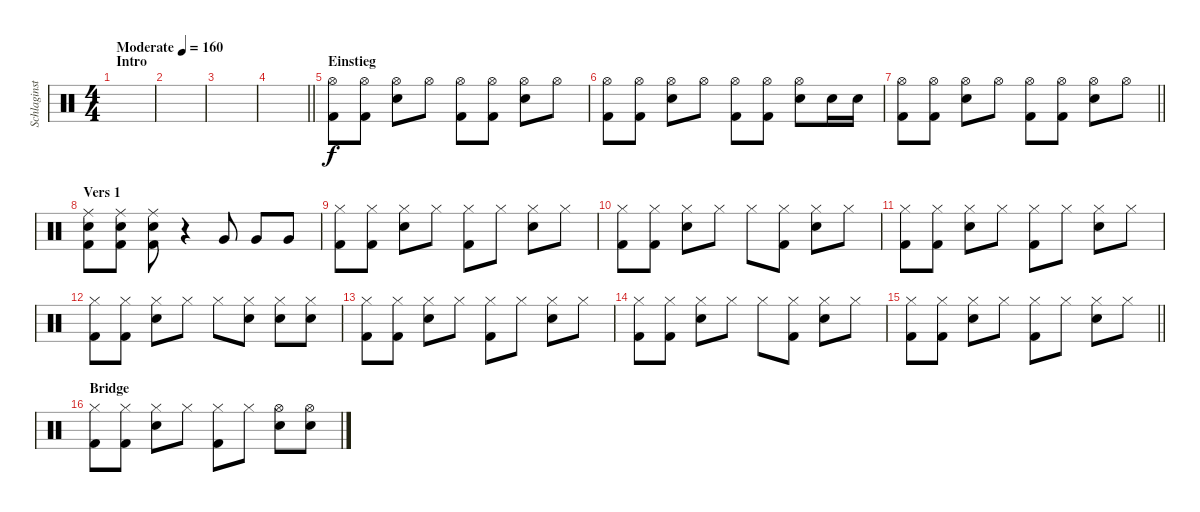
\track ("Schlaginstrumente - Auswahl" "Schlaginst") {instrument percussion}
\staff {score}
\articulation defaults
\ts (4 4)
\section ("" "Intro")
\tempo (160 "Moderate")
\clef neutral
\ks c
|
|
|
\barLineRight lightlight
|
\section ("" "Einstieg")
("Hi-Hat (open)" "Kick (hit) 2").8 ("Hi-Hat (open)" "Kick (hit) 2").8 ("Hi-Hat (open)" "Electric Snare (hit)").8 "Hi-Hat (open)".8 ("Hi-Hat (open)" "Kick (hit) 2").8 ("Hi-Hat (open)" "Kick (hit) 2").8 ("Hi-Hat (open)" "Electric Snare (hit)").8 "Hi-Hat (open)".8 |
("Hi-Hat (open)" "Kick (hit) 2").8 ("Hi-Hat (open)" "Kick (hit) 2").8 ("Hi-Hat (open)" "Electric Snare (hit)").8 "Hi-Hat (open)".8 ("Hi-Hat (open)" "Kick (hit) 2").8 ("Hi-Hat (open)" "Kick (hit) 2").8 ("Hi-Hat (open)" "Electric Snare (hit)").8 "Electric Snare (hit)".16 "Electric Snare (hit)".16 |
\barLineRight lightlight
("Hi-Hat (open)" "Kick (hit) 2").8 ("Hi-Hat (open)" "Kick (hit) 2").8 ("Hi-Hat (open)" "Electric Snare (hit)").8 "Hi-Hat (open)".8 ("Hi-Hat (open)" "Kick (hit) 2").8 ("Hi-Hat (open)" "Kick (hit) 2").8 ("Hi-Hat (open)" "Electric Snare (hit)").8 "Hi-Hat (open)".8 |
\section ("" "Vers 1")
("Ride (middle)" "Electric Snare (hit)" "Kick (hit) 2").8 ("Ride (middle)" "Electric Snare (hit)" "Kick (hit) 2").8 ("Ride (middle)" "Electric Snare (hit)" "Kick (hit) 2").8 r.4 "Very Low Tom (hit)".8 "Very Low Tom (hit)".8 "Very Low Tom (hit)".8 |
("Hi-Hat (closed)" "Kick (hit) 2").8 ("Hi-Hat (closed)" "Kick (hit) 2").8 ("Hi-Hat (closed)" "Electric Snare (hit)").8 "Hi-Hat (closed)".8 ("Hi-Hat (closed)" "Kick (hit) 2").8 "Hi-Hat (closed)".8 ("Hi-Hat (closed)" "Electric Snare (hit)").8 "Hi-Hat (closed)".8 |
("Hi-Hat (closed)" "Kick (hit) 2").8 ("Hi-Hat (closed)" "Kick (hit) 2").8 ("Hi-Hat (closed)" "Electric Snare (hit)").8 "Hi-Hat (closed)".8 "Hi-Hat (closed)".8 ("Hi-Hat (closed)" "Kick (hit) 2").8 ("Hi-Hat (closed)" "Electric Snare (hit)").8 "Hi-Hat (closed)".8 |
("Hi-Hat (closed)" "Kick (hit) 2").8 ("Hi-Hat (closed)" "Kick (hit) 2").8 ("Hi-Hat (closed)" "Electric Snare (hit)").8 "Hi-Hat (closed)".8 ("Hi-Hat (closed)" "Kick (hit) 2").8 "Hi-Hat (closed)".8 ("Hi-Hat (closed)" "Electric Snare (hit)").8 "Hi-Hat (closed)".8 |
("Hi-Hat (closed)" "Kick (hit) 2").8 ("Hi-Hat (closed)" "Kick (hit) 2").8 ("Hi-Hat (closed)" "Electric Snare (hit)").8 "Hi-Hat (closed)".8 "Hi-Hat (closed)".8 ("Hi-Hat (closed)" "Electric Snare (hit)").8 ("Hi-Hat (closed)" "Electric Snare (hit)").8 ("Hi-Hat (closed)" "Electric Snare (hit)").8 |
("Hi-Hat (closed)" "Kick (hit) 2").8 ("Hi-Hat (closed)" "Kick (hit) 2").8 ("Hi-Hat (closed)" "Electric Snare (hit)").8 "Hi-Hat (closed)".8 ("Hi-Hat (closed)" "Kick (hit) 2").8 "Hi-Hat (closed)".8 ("Hi-Hat (closed)" "Electric Snare (hit)").8 "Hi-Hat (closed)".8 |
("Hi-Hat (closed)" "Kick (hit) 2").8 ("Hi-Hat (closed)" "Kick (hit) 2").8 ("Hi-Hat (closed)" "Electric Snare (hit)").8 "Hi-Hat (closed)".8 "Hi-Hat (closed)".8 ("Hi-Hat (closed)" "Kick (hit) 2").8 ("Hi-Hat (closed)" "Electric Snare (hit)").8 "Hi-Hat (closed)".8 |
\barLineRight lightlight
("Hi-Hat (closed)" "Kick (hit) 2").8 ("Hi-Hat (closed)" "Kick (hit) 2").8 ("Hi-Hat (closed)" "Electric Snare (hit)").8 "Hi-Hat (closed)".8 ("Hi-Hat (closed)" "Kick (hit) 2").8 "Hi-Hat (closed)".8 ("Hi-Hat (closed)" "Electric Snare (hit)").8 "Hi-Hat (closed)".8 |
\section ("" "Bridge")
("Hi-Hat (closed)" "Kick (hit) 2").8 ("Hi-Hat (closed)" "Kick (hit) 2").8 ("Hi-Hat (closed)" "Electric Snare (hit)").8 "Hi-Hat (closed)".8 ("Hi-Hat (closed)" "Kick (hit) 2").8 "Hi-Hat (closed)".8 ("Hi-Hat (open)" "Electric Snare (hit)").8 ("Hi-Hat (open)" "Electric Snare (hit)").8
